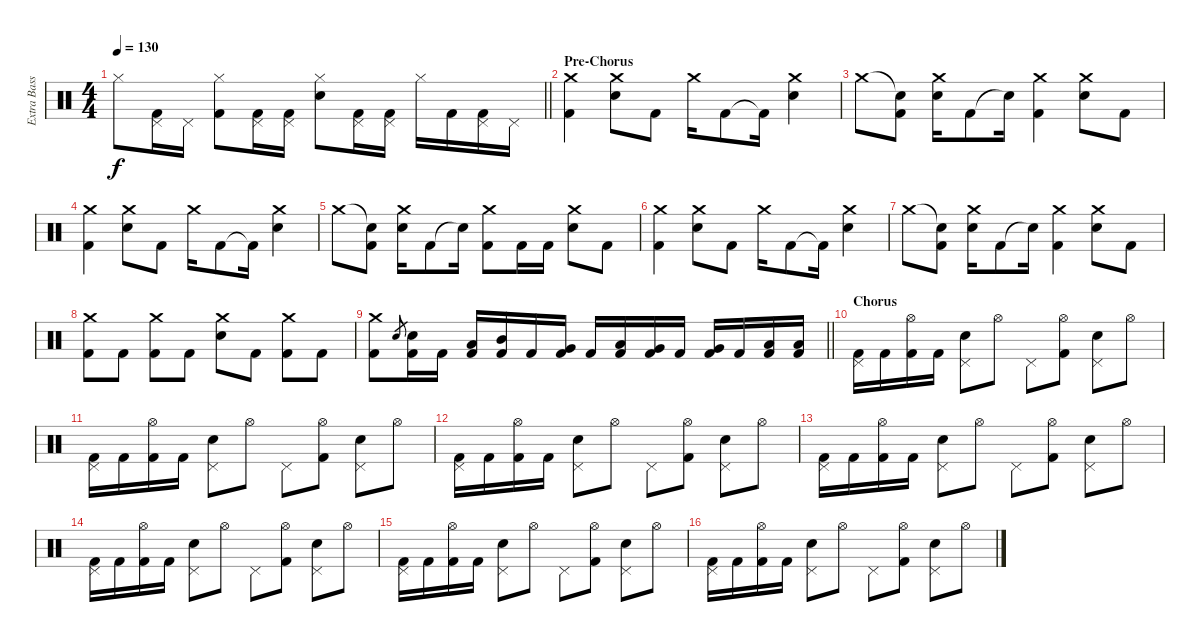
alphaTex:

\track ("Extra BassDrum" "Extra Bass") {instrument percussion}
\staff {score}
\articulation defaults
\ts (4 4)
\tempo 130
\clef neutral
\barLineRight lightlight
\ks c "Hi-Hat (closed)".8{dy f}
("Pedal Hi-Hat (hit)" "Kick (hit) 2").16 "Pedal Hi-Hat (hit)".16 ("Hi-Hat (closed)" "Kick (hit) 2").8 ("Pedal Hi-Hat (hit)" "Kick (hit) 2").16 ("Pedal Hi-Hat (hit)" "Kick (hit) 2").16 ("Hi-Hat (closed)" "Snare (hit) 2").8 ("Pedal Hi-Hat (hit)" "Kick (hit) 2").16 ("Pedal Hi-Hat (hit)" "Kick (hit) 2").16 "Hi-Hat (closed)".16 "Kick (hit) 2".16 ("Pedal Hi-Hat (hit)" "Kick (hit) 2").16 "Pedal Hi-Hat (hit)".16 |
\section ("" "Pre-Chorus")
("Crash medium (hit)" "Kick (hit) 2").4 ("Crash medium (hit)" "Snare (hit) 2").8 "Kick (hit) 2".8 "Crash medium (hit)".16 "Kick (hit) 2".8 "Kick (hit) 2"{t}.16 ("Crash medium (hit)" "Snare (hit) 2").4 |
"Crash medium (hit)".8 ("Snare (hit)"{t} "Kick (hit) 2").8 ("Crash medium (hit)" "Snare (hit) 2").16 "Kick (hit) 2".8 "Snare (hit)"{t}.16 ("Crash medium (hit)" "Kick (hit) 2").4 ("Crash medium (hit)" "Snare (hit) 2").8 "Kick (hit) 2".8 |
("Crash medium (hit)" "Kick (hit) 2").4 ("Crash medium (hit)" "Snare (hit) 2").8 "Kick (hit) 2".8 "Crash medium (hit)".16 "Kick (hit) 2".8 "Kick (hit) 2"{t}.16 ("Crash medium (hit)" "Snare (hit) 2").4 |
"Crash medium (hit)".8 ("Snare (hit)"{t} "Kick (hit) 2").8 ("Crash medium (hit)" "Snare (hit) 2").16 "Kick (hit) 2".8 "Snare (hit)"{t}.16 ("Crash medium (hit)" "Kick (hit) 2").8 "Kick (hit) 2".16 "Kick (hit) 2".16 ("Crash medium (hit)" "Snare (hit) 2").8 "Kick (hit) 2".8 |
("Crash medium (hit)" "Kick (hit) 2").4 ("Crash medium (hit)" "Snare (hit) 2").8 "Kick (hit) 2".8 "Crash medium (hit)".16 "Kick (hit) 2".8 "Kick (hit) 2"{t}.16 ("Crash medium (hit)" "Snare (hit) 2").4 |
"Crash medium (hit)".8 ("Snare (hit)"{t} "Kick (hit) 2").8 ("Crash medium (hit)" "Snare (hit) 2").16 "Kick (hit) 2".8 "Snare (hit)"{t}.16 ("Crash medium (hit)" "Kick (hit) 2").4 ("Crash medium (hit)" "Snare (hit) 2").8 "Kick (hit) 2".8 |
("Crash medium (hit)" "Kick (hit) 2").8 "Kick (hit) 2".8 ("Crash medium (hit)" "Kick (hit) 2").8 "Kick (hit) 2".8 ("Crash medium (hit)" "Snare (hit) 2").8 "Kick (hit) 2".8 ("Crash medium (hit)" "Kick (hit) 2").8 "Kick (hit) 2".8 |
\barLineRight lightlight
("Crash medium (hit)" "Kick (hit) 2").8 "Snare (hit) 2".8{gr} ("Snare (hit) 2" "Kick (hit) 2").16 "Kick (hit) 2".16 ("Low Tom (hit)" "Kick (hit) 2").16 ("Mid Tom (hit)" "Kick (hit) 2").16 "Kick (hit) 2".16 ("Very Low Tom (hit)" "Kick (hit) 2").16 "Kick (hit) 2".16 ("Low Floor Tom (hit)" "Kick (hit) 2").16 ("Very Low Tom (hit)" "Kick (hit) 2").16 "Kick (hit) 2".16 ("Very Low Tom (hit)" "Kick (hit) 2").16 "Kick (hit) 2".16 ("Low Floor Tom (hit)" "Kick (hit) 2").16 ("Low Floor Tom (hit)" "Kick (hit) 2").16 |
\section ("" "Chorus")
("Pedal Hi-Hat (hit)" "Kick (hit) 2").16 "Kick (hit) 2".16 ("Hi-Hat (open)" "Kick (hit) 2").16 "Kick (hit) 2".16 ("Pedal Hi-Hat (hit)" "Snare (hit) 2").8 "Hi-Hat (open)".8 "Pedal Hi-Hat (hit)".8 ("Hi-Hat (open)" "Kick (hit) 2").8 ("Pedal Hi-Hat (hit)" "Snare (hit) 2").8 "Hi-Hat (open)".8 |
("Pedal Hi-Hat (hit)" "Kick (hit) 2").16 "Kick (hit) 2".16 ("Hi-Hat (open)" "Kick (hit) 2").16 "Kick (hit) 2".16 ("Pedal Hi-Hat (hit)" "Snare (hit) 2").8 "Hi-Hat (open)".8 "Pedal Hi-Hat (hit)".8 ("Hi-Hat (open)" "Kick (hit) 2").8 ("Pedal Hi-Hat (hit)" "Snare (hit) 2").8 "Hi-Hat (open)".8 |
("Pedal Hi-Hat (hit)" "Kick (hit) 2").16 "Kick (hit) 2".16 ("Hi-Hat (open)" "Kick (hit) 2").16 "Kick (hit) 2".16 ("Pedal Hi-Hat (hit)" "Snare (hit) 2").8 "Hi-Hat (open)".8 "Pedal Hi-Hat (hit)".8 ("Hi-Hat (open)" "Kick (hit) 2").8 ("Pedal Hi-Hat (hit)" "Snare (hit) 2").8 "Hi-Hat (open)".8 |
("Pedal Hi-Hat (hit)" "Kick (hit) 2").16 "Kick (hit) 2".16 ("Hi-Hat (open)" "Kick (hit) 2").16 "Kick (hit) 2".16 ("Pedal Hi-Hat (hit)" "Snare (hit) 2").8 "Hi-Hat (open)".8 "Pedal Hi-Hat (hit)".8 ("Hi-Hat (open)" "Kick (hit) 2").8 ("Pedal Hi-Hat (hit)" "Snare (hit) 2").8 "Hi-Hat (open)".8 |
("Pedal Hi-Hat (hit)" "Kick (hit) 2").16 "Kick (hit) 2".16 ("Hi-Hat (open)" "Kick (hit) 2").16 "Kick (hit) 2".16 ("Pedal Hi-Hat (hit)" "Snare (hit) 2").8 "Hi-Hat (open)".8 "Pedal Hi-Hat (hit)".8 ("Hi-Hat (open)" "Kick (hit) 2").8 ("Pedal Hi-Hat (hit)" "Snare (hit) 2").8 "Hi-Hat (open)".8 |
("Pedal Hi-Hat (hit)" "Kick (hit) 2").16 "Kick (hit) 2".16 ("Hi-Hat (open)" "Kick (hit) 2").16 "Kick (hit) 2".16 ("Pedal Hi-Hat (hit)" "Snare (hit) 2").8 "Hi-Hat (open)".8 "Pedal Hi-Hat (hit)".8 ("Hi-Hat (open)" "Kick (hit) 2").8 ("Pedal Hi-Hat (hit)" "Snare (hit) 2").8 "Hi-Hat (open)".8 |
("Pedal Hi-Hat (hit)" "Kick (hit) 2").16 "Kick (hit) 2".16 ("Hi-Hat (open)" "Kick (hit) 2").16 "Kick (hit) 2".16 ("Pedal Hi-Hat (hit)" "Snare (hit) 2").8 "Hi-Hat (open)".8 "Pedal Hi-Hat (hit)".8 ("Hi-Hat (open)" "Kick (hit) 2").8 ("Pedal Hi-Hat (hit)" "Snare (hit) 2").8 "Hi-Hat (open)".8
